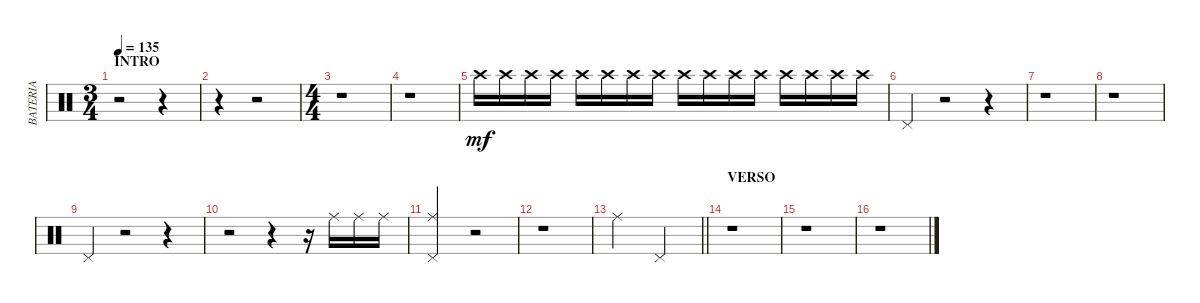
\track ("BATERIA" "BATERIA") {instrument percussion}
\staff {score}
\articulation defaults
\ts (3 4)
\section ("" "INTRO")
\tempo 135
\clef neutral
\ks c
r.2{dy mf} r.4 |
r.4 r.2 |
\ts (4 4)
r.1 |
r.1{volume 0} |
"Crash high (hit)".16{volume 10} "Crash high (hit)".16 "Crash high (hit)".16 "Crash high (hit)".16 "Crash high (hit)".16 "Crash high (hit)".16 "Crash high (hit)".16 "Crash high (hit)".16 "Crash high (hit)".16 "Crash high (hit)".16 "Crash high (hit)".16 "Crash high (hit)".16 "Crash high (hit)".16 "Crash high (hit)".16 "Crash high (hit)".16 "Crash high (hit)".16 |
"Pedal Hi-Hat (hit)".4 r.2 r.4 |
r.1 |
r.1 |
"Pedal Hi-Hat (hit)".4 r.2 r.4 |
r.2 r.4 r.16 "Ride (middle)".16 "Ride (middle)".16 "Ride (middle)".16 |
("Pedal Hi-Hat (hit)" "Ride (middle)").2 r.2 |
r.1 |
\barLineRight lightlight "Ride (middle)".2 "Pedal Hi-Hat (hit)".2
|
\section ("" "VERSO")
r.1 |
r.1 |
r.1
